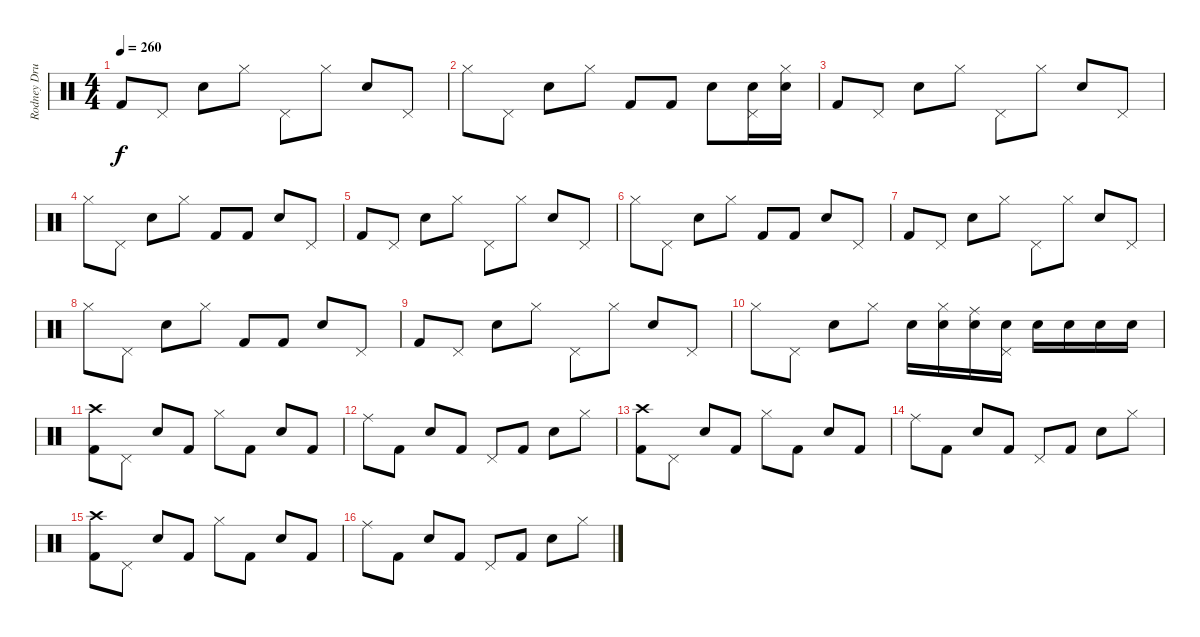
\track ("Rodney Drums" "Rodney Dru") {instrument percussion}
\staff {score}
\articulation defaults
\ts (4 4)
\tempo 260
\clef neutral
\ks c "Kick (hit) 2".8{dy f} "Pedal Hi-Hat (hit)".8 "Electric Snare (hit)".8 "Hi-Hat (closed)".8 "Pedal Hi-Hat (hit)".8 "Hi-Hat (closed)".8 "Electric Snare (hit)".8 "Pedal Hi-Hat (hit)".8
|
"Hi-Hat (closed)".8 "Pedal Hi-Hat (hit)".8 "Electric Snare (hit)".8 "Hi-Hat (closed)".8 "Kick (hit) 2".8 "Kick (hit) 2".8 "Electric Snare (hit)".8 ("Pedal Hi-Hat (hit)" "Electric Snare (hit)").16 ("Hi-Hat (closed)" "Electric Snare (hit)").16 |
"Kick (hit) 2".8 "Pedal Hi-Hat (hit)".8 "Electric Snare (hit)".8 "Hi-Hat (closed)".8 "Pedal Hi-Hat (hit)".8 "Hi-Hat (closed)".8 "Electric Snare (hit)".8 "Pedal Hi-Hat (hit)".8 |
"Hi-Hat (closed)".8 "Pedal Hi-Hat (hit)".8 "Electric Snare (hit)".8 "Hi-Hat (closed)".8 "Kick (hit) 2".8 "Kick (hit) 2".8 "Electric Snare (hit)".8 "Pedal Hi-Hat (hit)".8 |
"Kick (hit) 2".8 "Pedal Hi-Hat (hit)".8 "Electric Snare (hit)".8 "Hi-Hat (closed)".8 "Pedal Hi-Hat (hit)".8 "Hi-Hat (closed)".8 "Electric Snare (hit)".8 "Pedal Hi-Hat (hit)".8 |
"Hi-Hat (closed)".8 "Pedal Hi-Hat (hit)".8 "Electric Snare (hit)".8 "Hi-Hat (closed)".8 "Kick (hit) 2".8 "Kick (hit) 2".8 "Electric Snare (hit)".8 "Pedal Hi-Hat (hit)".8 |
"Kick (hit) 2".8 "Pedal Hi-Hat (hit)".8 "Electric Snare (hit)".8 "Hi-Hat (closed)".8 "Pedal Hi-Hat (hit)".8 "Hi-Hat (closed)".8 "Electric Snare (hit)".8 "Pedal Hi-Hat (hit)".8 |
"Hi-Hat (closed)".8 "Pedal Hi-Hat (hit)".8 "Electric Snare (hit)".8 "Hi-Hat (closed)".8 "Kick (hit) 2".8 "Kick (hit) 2".8 "Electric Snare (hit)".8 "Pedal Hi-Hat (hit)".8 |
"Kick (hit) 2".8 "Pedal Hi-Hat (hit)".8 "Electric Snare (hit)".8 "Hi-Hat (closed)".8 "Pedal Hi-Hat (hit)".8 "Hi-Hat (closed)".8 "Electric Snare (hit)".8 "Pedal Hi-Hat (hit)".8 |
"Hi-Hat (closed)".8 "Pedal Hi-Hat (hit)".8 "Electric Snare (hit)".8 "Hi-Hat (closed)".8 "Electric Snare (hit)".16 ("Hi-Hat (closed)" "Electric Snare (hit)").16 ("Electric Snare (hit)" "Ride (middle)").16 ("Pedal Hi-Hat (hit)" "Electric Snare (hit)").16 "Electric Snare (hit)".16 "Electric Snare (hit)".16 "Electric Snare (hit)".16 "Electric Snare (hit)".16 |
("Crash high (hit)" "Kick (hit) 2").8 "Pedal Hi-Hat (hit)".8 "Electric Snare (hit)".8 "Kick (hit) 2".8 "Hi-Hat (closed)".8 "Kick (hit) 2".8 "Electric Snare (hit)".8 "Kick (hit) 2".8 |
"Ride (middle)".8 "Kick (hit) 2".8 "Electric Snare (hit)".8 "Kick (hit) 2".8 "Pedal Hi-Hat (hit)".8 "Kick (hit) 2".8 "Electric Snare (hit)".8 "Hi-Hat (closed)".8 |
("Crash high (hit)" "Kick (hit) 2").8 "Pedal Hi-Hat (hit)".8 "Electric Snare (hit)".8 "Kick (hit) 2".8 "Hi-Hat (closed)".8 "Kick (hit) 2".8 "Electric Snare (hit)".8 "Kick (hit) 2".8 |
"Ride (middle)".8 "Kick (hit) 2".8 "Electric Snare (hit)".8 "Kick (hit) 2".8 "Pedal Hi-Hat (hit)".8 "Kick (hit) 2".8 "Electric Snare (hit)".8 "Hi-Hat (closed)".8 |
("Crash high (hit)" "Kick (hit) 2").8 "Pedal Hi-Hat (hit)".8 "Electric Snare (hit)".8 "Kick (hit) 2".8 "Hi-Hat (closed)".8 "Kick (hit) 2".8 "Electric Snare (hit)".8 "Kick (hit) 2".8 |
"Ride (middle)".8 "Kick (hit) 2".8 "Electric Snare (hit)".8 "Kick (hit) 2".8 "Pedal Hi-Hat (hit)".8 "Kick (hit) 2".8 "Electric Snare (hit)".8 "Hi-Hat (closed)".8
